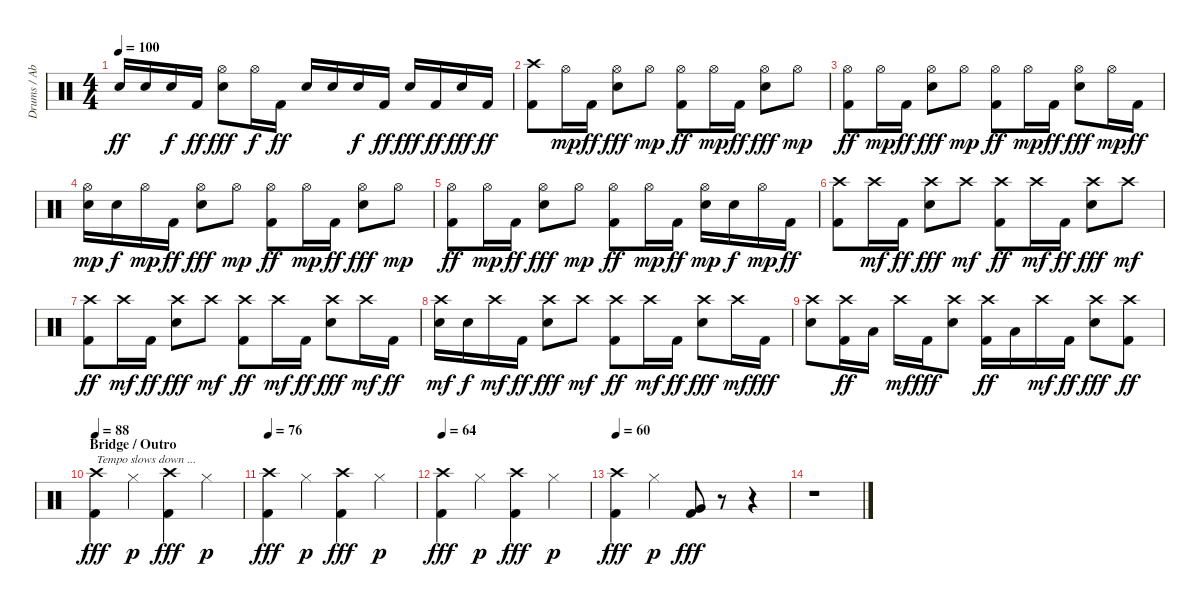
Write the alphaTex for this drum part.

\track ("Drums / Abe Cunningham" "Drums / Ab") {instrument percussion}
\staff {score}
\articulation defaults
\ts (4 4)
\tempo 100
\clef neutral
\ks c "Electric Snare (hit)".16{dy ff} "Electric Snare (hit)".16 "Electric Snare (hit)".16{dy f} "Kick (hit) 2".16{dy ff}
("Hi-Hat (open)" "Electric Snare (hit)").8{dy fff} "Hi-Hat (open)".16{dy f} "Kick (hit) 2".16{dy ff} "Electric Snare (hit)".16 "Electric Snare (hit)".16 "Electric Snare (hit)".16{dy f} "Kick (hit) 2".16{dy ff} "Electric Snare (hit)".16{dy fff} "Kick (hit) 2".16{dy ff} "Electric Snare (hit)".16{dy fff} "Kick (hit) 2".16{dy ff} |
("Crash high (hit)" "Kick (hit) 2").8 "Hi-Hat (open)".16{dy mp} "Kick (hit) 2".16{dy ff} ("Hi-Hat (open)" "Electric Snare (hit)").8{dy fff} "Hi-Hat (open)".8{dy mp} ("Hi-Hat (open)" "Kick (hit) 2").8{dy ff} "Hi-Hat (open)".16{dy mp} "Kick (hit) 2".16{dy ff} ("Hi-Hat (open)" "Electric Snare (hit)").8{dy fff} "Hi-Hat (open)".8{dy mp} |
("Hi-Hat (open)" "Kick (hit) 2").8{dy ff} "Hi-Hat (open)".16{dy mp} "Kick (hit) 2".16{dy ff} ("Hi-Hat (open)" "Electric Snare (hit)").8{dy fff} "Hi-Hat (open)".8{dy mp} ("Hi-Hat (open)" "Kick (hit) 2").8{dy ff} "Hi-Hat (open)".16{dy mp} "Kick (hit) 2".16{dy ff} ("Hi-Hat (open)" "Electric Snare (hit)").8{dy fff} "Hi-Hat (open)".16{dy mp} "Kick (hit) 2".16{dy ff} |
("Hi-Hat (open)" "Electric Snare (hit)").16{dy mp} "Electric Snare (hit)".16{dy f} "Hi-Hat (open)".16{dy mp} "Kick (hit) 2".16{dy ff} ("Hi-Hat (open)" "Electric Snare (hit)").8{dy fff} "Hi-Hat (open)".8{dy mp} ("Hi-Hat (open)" "Kick (hit) 2").8{dy ff} "Hi-Hat (open)".16{dy mp} "Kick (hit) 2".16{dy ff} ("Hi-Hat (open)" "Electric Snare (hit)").8{dy fff} "Hi-Hat (open)".8{dy mp} |
("Hi-Hat (open)" "Kick (hit) 2").8{dy ff} "Hi-Hat (open)".16{dy mp} "Kick (hit) 2".16{dy ff} ("Hi-Hat (open)" "Electric Snare (hit)").8{dy fff} "Hi-Hat (open)".8{dy mp} ("Hi-Hat (open)" "Kick (hit) 2").8{dy ff} "Hi-Hat (open)".16{dy mp} "Kick (hit) 2".16{dy ff} ("Hi-Hat (open)" "Electric Snare (hit)").16{dy mp} "Electric Snare (hit)".16{dy f} "Hi-Hat (open)".16{dy mp} "Kick (hit) 2".16{dy ff} |
("Crash high (hit)" "Kick (hit) 2").8 "Crash high (hit)".16{dy mf} "Kick (hit) 2".16{dy ff} ("Crash high (hit)" "Electric Snare (hit)").8{dy fff} "Crash high (hit)".8{dy mf} ("Crash high (hit)" "Kick (hit) 2").8{dy ff} "Crash high (hit)".16{dy mf} "Kick (hit) 2".16{dy ff} ("Crash high (hit)" "Electric Snare (hit)").8{dy fff} "Crash high (hit)".8{dy mf} |
("Crash high (hit)" "Kick (hit) 2").8{dy ff} "Crash high (hit)".16{dy mf} "Kick (hit) 2".16{dy ff} ("Crash high (hit)" "Electric Snare (hit)").8{dy fff} "Crash high (hit)".8{dy mf} ("Crash high (hit)" "Kick (hit) 2").8{dy ff} "Crash high (hit)".16{dy mf} "Kick (hit) 2".16{dy ff} ("Crash high (hit)" "Electric Snare (hit)").8{dy fff} "Crash high (hit)".16{dy mf} "Kick (hit) 2".16{dy ff} |
("Crash high (hit)" "Electric Snare (hit)").16{dy mf} "Electric Snare (hit)".16{dy f} "Crash high (hit)".16{dy mf} "Kick (hit) 2".16{dy ff} ("Crash high (hit)" "Electric Snare (hit)").8{dy fff} "Crash high (hit)".8{dy mf} ("Crash high (hit)" "Kick (hit) 2").8{dy ff} "Crash high (hit)".16{dy mf} "Kick (hit) 2".16{dy ff} ("Crash high (hit)" "Electric Snare (hit)").8{dy fff} "Crash high (hit)".16{dy mf} "Kick (hit) 2".16{dy fff} |
("Crash high (hit)" "Electric Snare (hit)").8 ("Crash high (hit)" "Kick (hit) 2").16{dy ff} "Low Tom (hit)".16 "Crash high (hit)".16{dy mf} "Kick (hit) 2".16{dy fff} ("Crash high (hit)" "Electric Snare (hit)").8 ("Crash high (hit)" "Kick (hit) 2").16{dy ff} "Low Tom (hit)".16 "Crash high (hit)".16{dy mf} "Kick (hit) 2".16{dy ff} ("Crash high (hit)" "Electric Snare (hit)").8{dy fff} ("Crash high (hit)" "Kick (hit) 2").8{dy ff} |
\section ("" "Bridge / Outro")
\tempo 88
("Crash high (hit)" "Kick (hit) 2").4{txt "Tempo slows down ..." dy fff} "Hi-Hat (closed)".4{dy p} ("Crash high (hit)" "Kick (hit) 2").4{dy fff} "Hi-Hat (closed)".4{dy p} |
\tempo 76
("Crash high (hit)" "Kick (hit) 2").4{dy fff} "Hi-Hat (closed)".4{dy p} ("Crash high (hit)" "Kick (hit) 2").4{dy fff} "Hi-Hat (closed)".4{dy p} |
\tempo 64
("Crash high (hit)" "Kick (hit) 2").4{dy fff} "Hi-Hat (closed)".4{dy p} ("Crash high (hit)" "Kick (hit) 2").4{dy fff} "Hi-Hat (closed)".4{dy p} |
\tempo 60
("Crash high (hit)" "Kick (hit) 2").4{dy fff} "Hi-Hat (closed)".4{dy p} ("Very Low Tom (hit)" "Kick (hit) 2").8{dy fff} r.8 r.4 |
r.1
